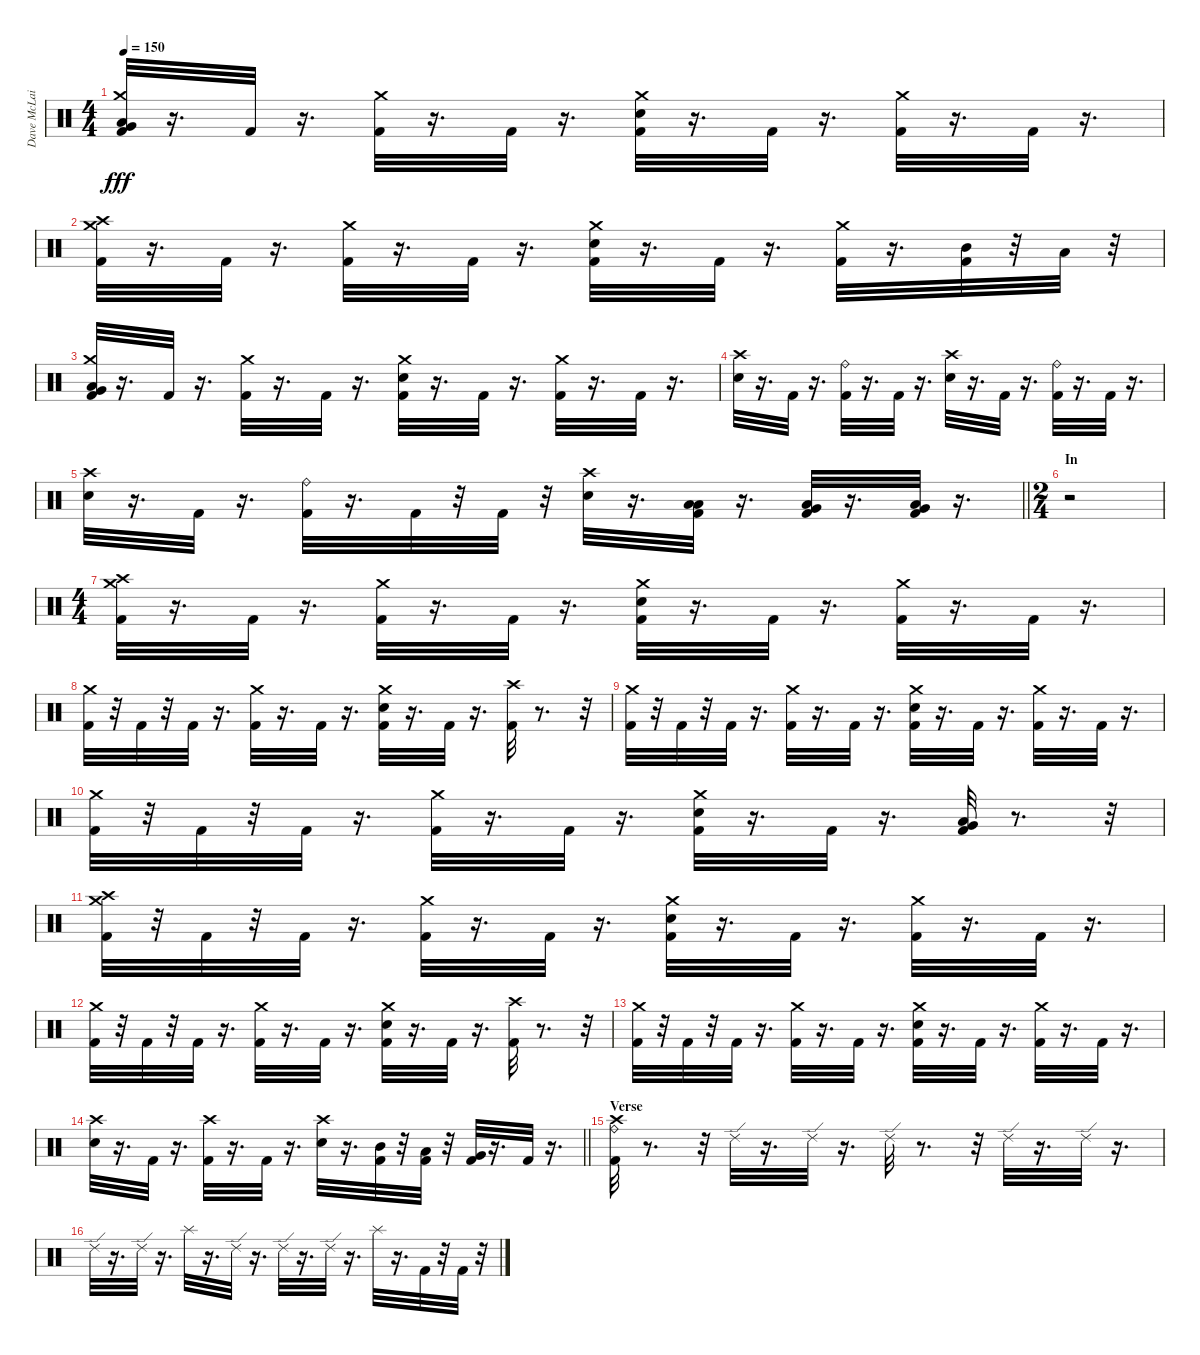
\track ("Dave McLain" "Dave McLai") {instrument percussion}
\staff {score}
\articulation defaults
\ts (4 4)
\tempo 150
\clef neutral
\ks c
("Very Low Tom (hit)" "Low Floor Tom (hit)" "Crash medium (hit)" "Kick (hit) 2").32{dy fff} r.16{d} "Kick (hit) 2".32 r.16{d} ("Crash medium (hit)" "Kick (hit) 2").32 r.16{d} "Kick (hit) 2".32 r.16{d} ("Crash medium (hit)" "Snare (hit) 2" "Kick (hit) 2").32 r.16{d} "Kick (hit) 2".32 r.16{d} ("Crash medium (hit)" "Kick (hit) 2").32 r.16{d} "Kick (hit) 2".32 r.16{d} |
("Crash high (hit)" "Crash medium (hit)" "Kick (hit) 2").32 r.16{d} "Kick (hit) 2".32 r.16{d} ("Crash medium (hit)" "Kick (hit) 2").32 r.16{d} "Kick (hit) 2".32 r.16{d} ("Crash medium (hit)" "Snare (hit) 2" "Kick (hit) 2").32 r.16{d} "Kick (hit) 2".32 r.16{d} ("Crash medium (hit)" "Kick (hit) 2").32 r.16{d} ("Mid Tom (hit)" "Kick (hit) 2").32 r.32 "Low Tom (hit)".32 r.32 |
("Low Floor Tom (hit)" "Very Low Tom (hit)" "Crash medium (hit)" "Kick (hit) 2").32 r.16{d} "Kick (hit) 2".32 r.16{d} ("Crash medium (hit)" "Kick (hit) 2").32 r.16{d} "Kick (hit) 2".32 r.16{d} ("Crash medium (hit)" "Snare (hit) 2" "Kick (hit) 2").32 r.16{d} "Kick (hit) 2".32 r.16{d} ("Crash medium (hit)" "Kick (hit) 2").32 r.16{d} "Kick (hit) 2".32 r.16{d} |
("Snare (hit) 2" "Crash high (hit)").32 r.16{d} "Kick (hit) 2".32 r.16{d} ("Ride (bell)" "Kick (hit) 2").32 r.16{d} "Kick (hit) 2".32 r.16{d} ("Crash high (hit)" "Snare (hit) 2").32 r.16{d} "Kick (hit) 2".32 r.16{d} ("Ride (bell)" "Kick (hit) 2").32 r.16{d} "Kick (hit) 2".32 r.16{d} |
\barLineRight lightlight
("Crash high (hit)" "Snare (hit) 2").32 r.16{d} "Kick (hit) 2".32 r.16{d} ("Ride (bell)" "Kick (hit) 2").32 r.16{d} "Kick (hit) 2".32 r.32 "Kick (hit) 2".32 r.32 ("Crash high (hit)" "Snare (hit) 2").32 r.16{d} ("Low Tom (hit)" "Low Floor Tom (hit)" "Kick (hit) 2").32 r.16{d} ("Very Low Tom (hit)" "Low Floor Tom (hit)" "Kick (hit) 2").32 r.16{d} ("Very Low Tom (hit)" "Low Floor Tom (hit)" "Kick (hit) 2").32 r.16{d} |
\ts (2 4)
\section ("" "In")
r.2 |
\ts (4 4)
("Crash medium (hit)" "Crash high (hit)" "Kick (hit) 2").32 r.16{d} "Kick (hit) 2".32 r.16{d} ("Crash medium (hit)" "Kick (hit) 2").32 r.16{d} "Kick (hit) 2".32 r.16{d} ("Snare (hit) 2" "Crash medium (hit)" "Kick (hit) 2").32 r.16{d} "Kick (hit) 2".32 r.16{d} ("Crash medium (hit)" "Kick (hit) 2").32 r.16{d} "Kick (hit) 2".32 r.16{d} |
("Crash medium (hit)" "Kick (hit) 2").32 r.32 "Kick (hit) 2".32 r.32 "Kick (hit) 2".32 r.16{d} ("Crash medium (hit)" "Kick (hit) 2").32 r.16{d} "Kick (hit) 2".32 r.16{d} ("Snare (hit) 2" "Crash medium (hit)" "Kick (hit) 2").32 r.16{d} "Kick (hit) 2".32 r.16{d} ("Crash high (hit)" "Kick (hit) 2").32 r.8{d} r.32 |
("Crash medium (hit)" "Kick (hit) 2").32 r.32 "Kick (hit) 2".32 r.32 "Kick (hit) 2".32 r.16{d} ("Kick (hit) 2" "Crash medium (hit)").32 r.16{d} "Kick (hit) 2".32 r.16{d} ("Snare (hit) 2" "Kick (hit) 2" "Crash medium (hit)").32 r.16{d} "Kick (hit) 2".32 r.16{d} ("Crash medium (hit)" "Kick (hit) 2").32 r.16{d} "Kick (hit) 2".32 r.16{d} |
("Crash medium (hit)" "Kick (hit) 2").32 r.32 "Kick (hit) 2".32 r.32 "Kick (hit) 2".32 r.16{d} ("Crash medium (hit)" "Kick (hit) 2").32 r.16{d} "Kick (hit) 2".32 r.16{d} ("Snare (hit) 2" "Crash medium (hit)" "Kick (hit) 2").32 r.16{d} "Kick (hit) 2".32 r.16{d} ("Low Floor Tom (hit)" "Very Low Tom (hit)" "Kick (hit) 2").32 r.8{d} r.32 |
("Crash medium (hit)" "Crash high (hit)" "Kick (hit) 2").32 r.32 "Kick (hit) 2".32 r.32 "Kick (hit) 2".32 r.16{d} ("Crash medium (hit)" "Kick (hit) 2").32 r.16{d} "Kick (hit) 2".32 r.16{d} ("Snare (hit) 2" "Crash medium (hit)" "Kick (hit) 2").32 r.16{d} "Kick (hit) 2".32 r.16{d} ("Crash medium (hit)" "Kick (hit) 2").32 r.16{d} "Kick (hit) 2".32 r.16{d} |
("Crash medium (hit)" "Kick (hit) 2").32 r.32 "Kick (hit) 2".32 r.32 "Kick (hit) 2".32 r.16{d} ("Crash medium (hit)" "Kick (hit) 2").32 r.16{d} "Kick (hit) 2".32 r.16{d} ("Snare (hit) 2" "Crash medium (hit)" "Kick (hit) 2").32 r.16{d} "Kick (hit) 2".32 r.16{d} ("Crash high (hit)" "Kick (hit) 2").32 r.8{d} r.32 |
("Crash medium (hit)" "Kick (hit) 2").32 r.32 "Kick (hit) 2".32 r.32 "Kick (hit) 2".32 r.16{d} ("Kick (hit) 2" "Crash medium (hit)").32 r.16{d} "Kick (hit) 2".32 r.16{d} ("Snare (hit) 2" "Kick (hit) 2" "Crash medium (hit)").32 r.16{d} "Kick (hit) 2".32 r.16{d} ("Crash medium (hit)" "Kick (hit) 2").32 r.16{d} "Kick (hit) 2".32 r.16{d} |
\barLineRight lightlight
("Snare (hit) 2" "Crash high (hit)").32 r.16{d} "Kick (hit) 2".32 r.16{d} ("Kick (hit) 2" "Crash high (hit)").32 r.16{d} "Kick (hit) 2".32 r.16{d} ("Snare (hit) 2" "Crash high (hit)").32 r.16{d} ("Mid Tom (hit)" "Kick (hit) 2").32 r.32 ("Low Tom (hit)" "Kick (hit) 2").32 r.32 ("Very Low Tom (hit)" "Kick (hit) 2").32 r.16{d} "Kick (hit) 2".32 r.16{d} |
\section ("" "Verse")
("Ride (bell)" "Crash high (hit)" "Kick (hit) 2").32 r.8{d} r.32 "Ride (edge) 2".32 r.16{d} "Ride (edge) 2".32 r.16{d} "Ride (edge) 2".32 r.8{d} r.32 "Ride (edge) 2".32 r.16{d} "Ride (edge) 2".32 r.16{d} |
"Ride (edge) 2".32 r.16{d} "Ride (edge) 2".32 r.16{d} "Splash (hit)".32 r.16{d} "Ride (edge) 2".32 r.16{d} "Ride (edge) 2".32 r.16{d} "Ride (edge) 2".32 r.16{d} "Splash (hit)".32 r.16{d} "Kick (hit) 2".32 r.32 "Kick (hit) 2".32 r.32
